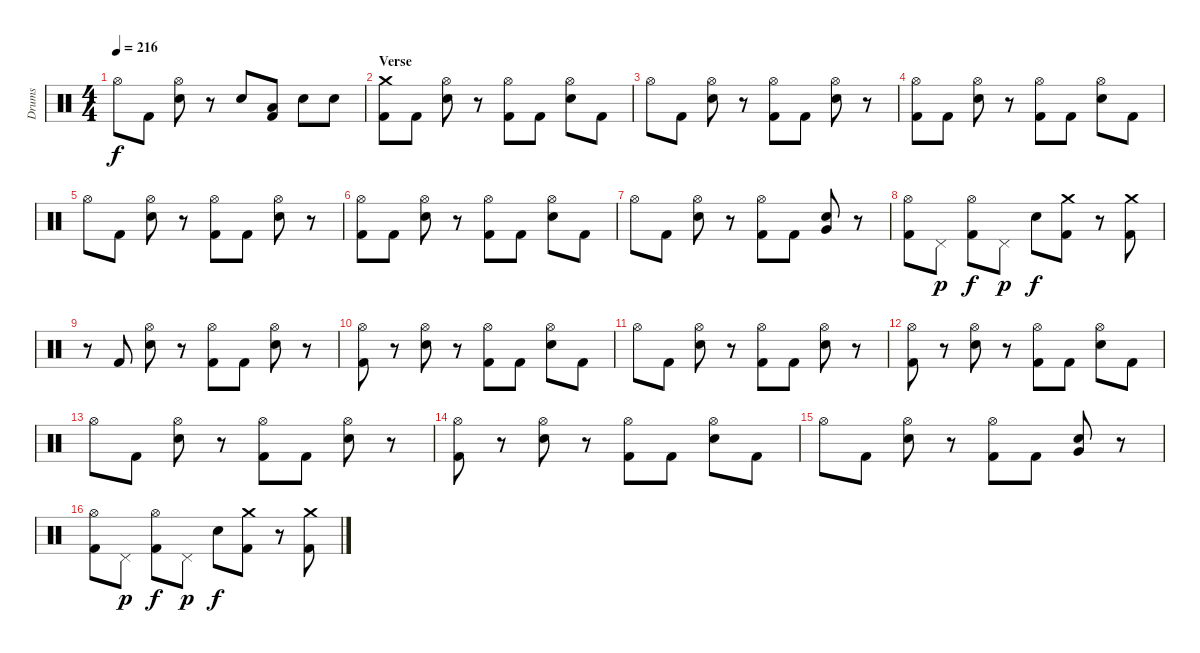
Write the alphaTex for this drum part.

\track ("Drums" "Drums") {instrument percussion}
\staff {score}
\articulation defaults
\ts (4 4)
\tempo 216
\clef neutral
\ks c "Hi-Hat (open)".8{dy f} "Kick (hit) 2".8
("Hi-Hat (open)" "Electric Snare (hit)").8 r.8 "Electric Snare (hit)".8 ("Low Tom (hit)" "Kick (hit) 2").8 "Electric Snare (hit)".8 "Electric Snare (hit)".8 |
\section ("" "Verse")
("Crash medium (hit)" "Kick (hit) 2").8 "Kick (hit) 2".8 ("Hi-Hat (open)" "Electric Snare (hit)").8 r.8 ("Hi-Hat (open)" "Kick (hit) 2").8 "Kick (hit) 2".8 ("Hi-Hat (open)" "Electric Snare (hit)").8 "Kick (hit) 2".8 |
"Hi-Hat (open)".8 "Kick (hit) 2".8 ("Hi-Hat (open)" "Electric Snare (hit)").8 r.8 ("Hi-Hat (open)" "Kick (hit) 2").8 "Kick (hit) 2".8 ("Hi-Hat (open)" "Electric Snare (hit)").8 r.8 |
("Hi-Hat (open)" "Kick (hit) 2").8 "Kick (hit) 2".8 ("Hi-Hat (open)" "Electric Snare (hit)").8 r.8 ("Hi-Hat (open)" "Kick (hit) 2").8 "Kick (hit) 2".8 ("Hi-Hat (open)" "Electric Snare (hit)").8 "Kick (hit) 2".8 |
"Hi-Hat (open)".8 "Kick (hit) 2".8 ("Hi-Hat (open)" "Electric Snare (hit)").8 r.8 ("Hi-Hat (open)" "Kick (hit) 2").8 "Kick (hit) 2".8 ("Hi-Hat (open)" "Electric Snare (hit)").8 r.8 |
("Hi-Hat (open)" "Kick (hit) 2").8 "Kick (hit) 2".8 ("Hi-Hat (open)" "Electric Snare (hit)").8 r.8 ("Hi-Hat (open)" "Kick (hit) 2").8 "Kick (hit) 2".8 ("Hi-Hat (open)" "Electric Snare (hit)").8 "Kick (hit) 2".8 |
"Hi-Hat (open)".8 "Kick (hit) 2".8 ("Hi-Hat (open)" "Electric Snare (hit)").8 r.8 ("Hi-Hat (open)" "Kick (hit) 2").8 "Kick (hit) 2".8 ("Very Low Tom (hit)" "Electric Snare (hit)").8 r.8 |
("Hi-Hat (open)" "Kick (hit) 2").8 "Pedal Hi-Hat (hit)".8{dy p} ("Hi-Hat (open)" "Kick (hit) 2").8{dy f} "Pedal Hi-Hat (hit)".8{dy p} "Electric Snare (hit)".8{dy f} ("Crash medium (hit)" "Kick (hit) 2").8 r.8 ("Crash medium (hit)" "Kick (hit) 2").8 |
r.8 "Kick (hit) 2".8 ("Hi-Hat (open)" "Electric Snare (hit)").8 r.8 ("Hi-Hat (open)" "Kick (hit) 2").8 "Kick (hit) 2".8 ("Hi-Hat (open)" "Electric Snare (hit)").8 r.8 |
("Hi-Hat (open)" "Kick (hit) 2").8 r.8 ("Hi-Hat (open)" "Electric Snare (hit)").8 r.8 ("Hi-Hat (open)" "Kick (hit) 2").8 "Kick (hit) 2".8 ("Hi-Hat (open)" "Electric Snare (hit)").8 "Kick (hit) 2".8 |
"Hi-Hat (open)".8 "Kick (hit) 2".8 ("Hi-Hat (open)" "Electric Snare (hit)").8 r.8 ("Hi-Hat (open)" "Kick (hit) 2").8 "Kick (hit) 2".8 ("Hi-Hat (open)" "Electric Snare (hit)").8 r.8 |
("Hi-Hat (open)" "Kick (hit) 2").8 r.8 ("Hi-Hat (open)" "Electric Snare (hit)").8 r.8 ("Hi-Hat (open)" "Kick (hit) 2").8 "Kick (hit) 2".8 ("Hi-Hat (open)" "Electric Snare (hit)").8 "Kick (hit) 2".8 |
"Hi-Hat (open)".8 "Kick (hit) 2".8 ("Hi-Hat (open)" "Electric Snare (hit)").8 r.8 ("Hi-Hat (open)" "Kick (hit) 2").8 "Kick (hit) 2".8 ("Hi-Hat (open)" "Electric Snare (hit)").8 r.8 |
("Hi-Hat (open)" "Kick (hit) 2").8 r.8 ("Hi-Hat (open)" "Electric Snare (hit)").8 r.8 ("Hi-Hat (open)" "Kick (hit) 2").8 "Kick (hit) 2".8 ("Hi-Hat (open)" "Electric Snare (hit)").8 "Kick (hit) 2".8 |
"Hi-Hat (open)".8 "Kick (hit) 2".8 ("Hi-Hat (open)" "Electric Snare (hit)").8 r.8 ("Hi-Hat (open)" "Kick (hit) 2").8 "Kick (hit) 2".8 ("Very Low Tom (hit)" "Electric Snare (hit)").8 r.8 |
("Hi-Hat (open)" "Kick (hit) 2").8 "Pedal Hi-Hat (hit)".8{dy p} ("Hi-Hat (open)" "Kick (hit) 2").8{dy f} "Pedal Hi-Hat (hit)".8{dy p} "Electric Snare (hit)".8{dy f} ("Crash medium (hit)" "Kick (hit) 2").8 r.8 ("Crash medium (hit)" "Kick (hit) 2").8
